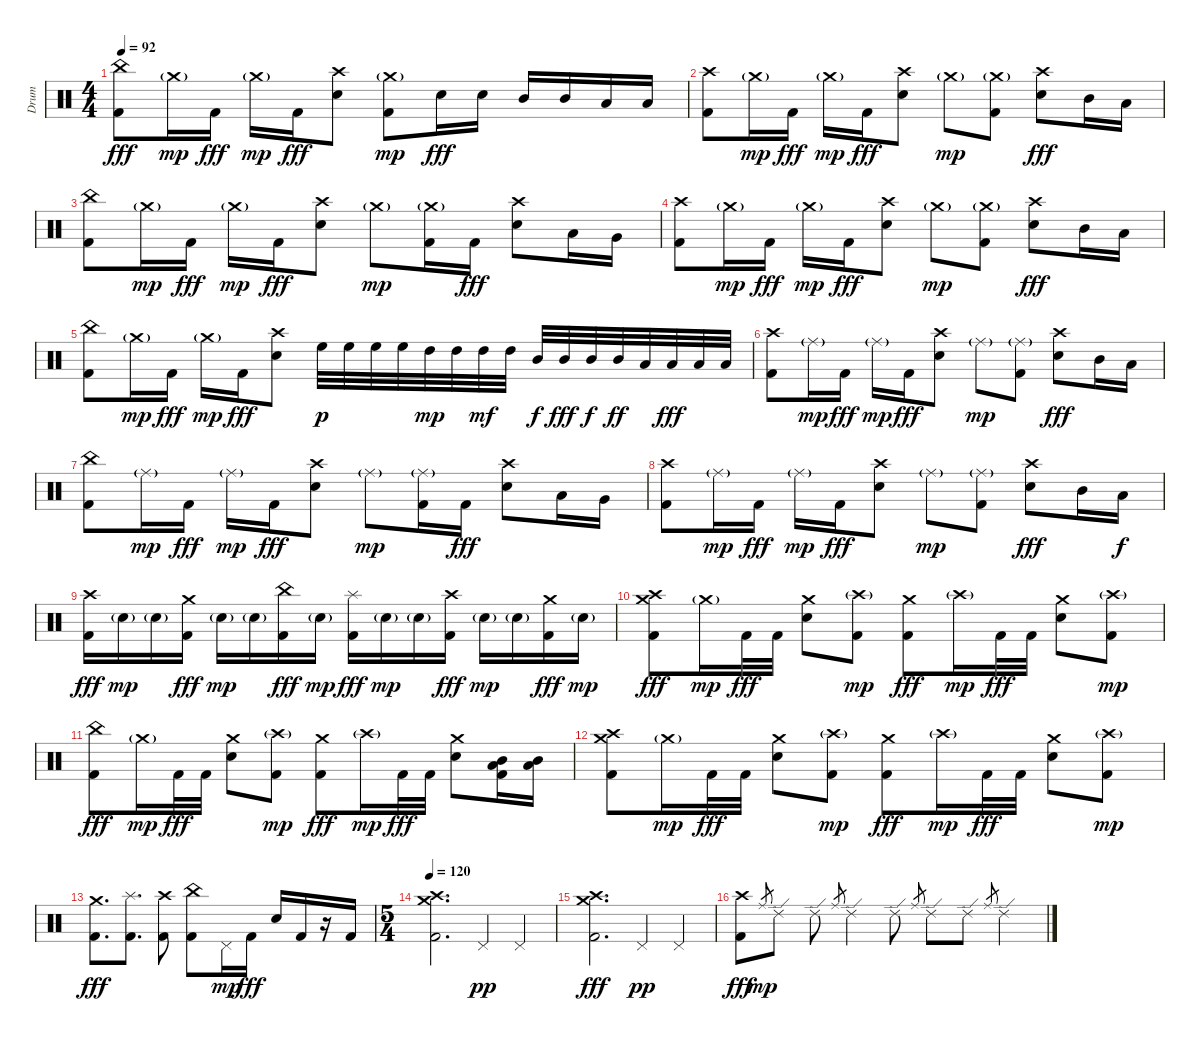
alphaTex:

\track ("Drum" "Drum") {instrument percussion}
\staff {score}
\articulation defaults
\ts (4 4)
\tempo 92
\clef neutral
\ks c
("Kick (hit) 2" "China (hit)").8{dy fff} "Crash medium (hit)"{g}.16{dy mp} "Kick (hit) 2".16{dy fff} "Crash medium (hit)"{g}.16{dy mp} "Kick (hit) 2".16{dy fff} ("Electric Snare (hit)" "Crash high (hit)").8 ("Kick (hit) 2" "Crash medium (hit)"{g}).8{dy mp} "Electric Snare (hit)".16{dy fff} "Electric Snare (hit)".16 "Mid Tom (hit)".16 "Mid Tom (hit)".16 "Low Tom (hit)".16 "Low Tom (hit)".16 |
("Kick (hit) 2" "Crash high (hit)").8 "Crash medium (hit)"{g}.16{dy mp} "Kick (hit) 2".16{dy fff} "Crash medium (hit)"{g}.16{dy mp} "Kick (hit) 2".16{dy fff} ("Electric Snare (hit)" "Crash high (hit)").8 "Crash medium (hit)"{g}.8{dy mp} ("Kick (hit) 2" "Crash medium (hit)"{g}).8 ("Electric Snare (hit)" "Crash high (hit)").8{dy fff} "Mid Tom (hit)".16 "Low Tom (hit)".16 |
("Kick (hit) 2" "China (hit)").8 "Crash medium (hit)"{g}.16{dy mp} "Kick (hit) 2".16{dy fff} "Crash medium (hit)"{g}.16{dy mp} "Kick (hit) 2".16{dy fff} ("Electric Snare (hit)" "Crash high (hit)").8 "Crash medium (hit)"{g}.8{dy mp} ("Kick (hit) 2" "Crash medium (hit)"{g}).16 "Kick (hit) 2".16{dy fff} ("Electric Snare (hit)" "Crash high (hit)").8 "Low Tom (hit)".16 "Very Low Tom (hit)".16 |
("Kick (hit) 2" "Crash high (hit)").8 "Crash medium (hit)"{g}.16{dy mp} "Kick (hit) 2".16{dy fff} "Crash medium (hit)"{g}.16{dy mp} "Kick (hit) 2".16{dy fff} ("Electric Snare (hit)" "Crash high (hit)").8 "Crash medium (hit)"{g}.8{dy mp} ("Kick (hit) 2" "Crash medium (hit)"{g}).8 ("Electric Snare (hit)" "Crash high (hit)").8{dy fff} "Mid Tom (hit)".16 "Low Tom (hit)".16 |
("Kick (hit) 2" "China (hit)").8 "Crash medium (hit)"{g}.16{dy mp} "Kick (hit) 2".16{dy fff} "Crash medium (hit)"{g}.16{dy mp} "Kick (hit) 2".16{dy fff} ("Electric Snare (hit)" "Crash high (hit)").8 "High Floor Tom (hit)".32{dy p} "High Floor Tom (hit)".32 "High Floor Tom (hit)".32 "High Floor Tom (hit)".32 "High Tom (hit)".32{dy mp} "High Tom (hit)".32 "High Tom (hit)".32{dy mf} "High Tom (hit)".32 "Mid Tom (hit)".32{dy f} "Mid Tom (hit)".32{dy fff} "Mid Tom (hit)".32{dy f} "Mid Tom (hit)".32{dy ff} "Low Tom (hit)".32 "Low Tom (hit)".32{dy fff} "Low Tom (hit)".32 "Low Tom (hit)".32 |
("Kick (hit) 2" "Crash high (hit)").8 "Ride (middle)"{g}.16{dy mp} "Kick (hit) 2".16{dy fff} "Ride (middle)"{g}.16{dy mp} "Kick (hit) 2".16{dy fff} ("Electric Snare (hit)" "Crash high (hit)").8 "Ride (middle)"{g}.8{dy mp} ("Kick (hit) 2" "Ride (middle)"{g}).8 ("Electric Snare (hit)" "Crash high (hit)").8{dy fff} "Mid Tom (hit)".16 "Low Tom (hit)".16 |
("Kick (hit) 2" "China (hit)").8 "Ride (middle)"{g}.16{dy mp} "Kick (hit) 2".16{dy fff} "Ride (middle)"{g}.16{dy mp} "Kick (hit) 2".16{dy fff} ("Electric Snare (hit)" "Crash high (hit)").8 "Ride (middle)"{g}.8{dy mp} ("Kick (hit) 2" "Ride (middle)"{g}).16 "Kick (hit) 2".16{dy fff} ("Electric Snare (hit)" "Crash high (hit)").8 "Low Tom (hit)".16 "Very Low Tom (hit)".16 |
("Kick (hit) 2" "Crash high (hit)").8 "Ride (middle)"{g}.16{dy mp} "Kick (hit) 2".16{dy fff} "Ride (middle)"{g}.16{dy mp} "Kick (hit) 2".16{dy fff} ("Electric Snare (hit)" "Crash high (hit)").8 "Ride (middle)"{g}.8{dy mp} ("Kick (hit) 2" "Ride (middle)"{g}).8 ("Electric Snare (hit)" "Crash high (hit)").8{dy fff} "Mid Tom (hit)".16 "Low Tom (hit)".16{dy f} |
("Kick (hit) 2" "Crash high (hit)").16{dy fff} "Electric Snare (hit)"{g}.16{dy mp} "Electric Snare (hit)"{g}.16 ("Kick (hit) 2" "Crash medium (hit)").16{dy fff} "Electric Snare (hit)"{g}.16{dy mp} "Electric Snare (hit)"{g}.16 ("Kick (hit) 2" "China (hit)").16{dy fff} "Electric Snare (hit)"{g}.16{dy mp} ("Kick (hit) 2" "Splash (hit)").16{dy fff} "Electric Snare (hit)"{g}.16{dy mp} "Electric Snare (hit)"{g}.16 ("Kick (hit) 2" "Crash high (hit)").16{dy fff} "Electric Snare (hit)"{g}.16{dy mp} "Electric Snare (hit)"{g}.16 ("Kick (hit) 2" "Crash medium (hit)").16{dy fff} "Electric Snare (hit)"{g}.16{dy mp} |
("Kick (hit) 2" "Crash medium (hit)" "Crash high (hit)").8{dy fff} "Crash medium (hit)"{g}.16{dy mp} "Kick (hit) 2".32{dy fff} "Kick (hit) 2".32 ("Electric Snare (hit)" "Crash medium (hit)").8 ("Kick (hit) 2" "Crash high (hit)"{g}).8{dy mp} ("Kick (hit) 2" "Crash medium (hit)").8{dy fff} "Crash high (hit)"{g}.16{dy mp} "Kick (hit) 2".32{dy fff} "Kick (hit) 2".32 ("Electric Snare (hit)" "Crash medium (hit)").8 ("Kick (hit) 2" "Crash high (hit)"{g}).8{dy mp} |
("Kick (hit) 2" "China (hit)").8{dy fff} "Crash medium (hit)"{g}.16{dy mp} "Kick (hit) 2".32{dy fff} "Kick (hit) 2".32 ("Electric Snare (hit)" "Crash medium (hit)").8 ("Kick (hit) 2" "Crash high (hit)"{g}).8{dy mp} ("Kick (hit) 2" "Crash medium (hit)").8{dy fff} "Crash high (hit)"{g}.16{dy mp} "Kick (hit) 2".32{dy fff} "Kick (hit) 2".32 ("Electric Snare (hit)" "Crash medium (hit)").8 ("Kick (hit) 2" "Low Tom (hit)" "Mid Tom (hit)").16 ("Low Tom (hit)" "Mid Tom (hit)").16 |
("Kick (hit) 2" "Crash medium (hit)" "Crash high (hit)").8 "Crash medium (hit)"{g}.16{dy mp} "Kick (hit) 2".32{dy fff} "Kick (hit) 2".32 ("Electric Snare (hit)" "Crash medium (hit)").8 ("Kick (hit) 2" "Crash high (hit)"{g}).8{dy mp} ("Kick (hit) 2" "Crash medium (hit)").8{dy fff} "Crash high (hit)"{g}.16{dy mp} "Kick (hit) 2".32{dy fff} "Kick (hit) 2".32 ("Electric Snare (hit)" "Crash medium (hit)").8 ("Kick (hit) 2" "Crash high (hit)"{g}).8{dy mp} |
("Kick (hit) 2" "Crash medium (hit)").8{d dy fff} ("Kick (hit) 2" "Splash (hit)").8{d} ("Kick (hit) 2" "Crash high (hit)").8 ("Kick (hit) 2" "China (hit)").8 "Pedal Hi-Hat (hit)".16{dy mp} "Kick (hit) 2".16{dy fff} "Electric Snare (hit)".16 "Kick (hit) 2".16 r.16 "Kick (hit) 2".16 |
\ts (5 4)
\tempo 120
("Kick (hit) 2" "Crash high (hit)" "Crash medium (hit)").2{d} "Pedal Hi-Hat (hit)".4{dy pp} "Pedal Hi-Hat (hit)".4 |
("Kick (hit) 2" "Crash high (hit)" "Crash medium (hit)").2{d dy fff} "Pedal Hi-Hat (hit)".4{dy pp} "Pedal Hi-Hat (hit)".4 |
("Kick (hit) 2" "Crash high (hit)").8{dy fff} "Ride (middle)".8{gr dy mp} "Ride (edge) 2".8 "Ride (edge) 2".8 "Ride (middle)".8{gr} "Ride (edge) 2".4 "Ride (edge) 2".8 "Ride (middle)".8{gr} "Ride (edge) 2".8 "Ride (edge) 2".8 "Ride (middle)".8{gr} "Ride (edge) 2".4
